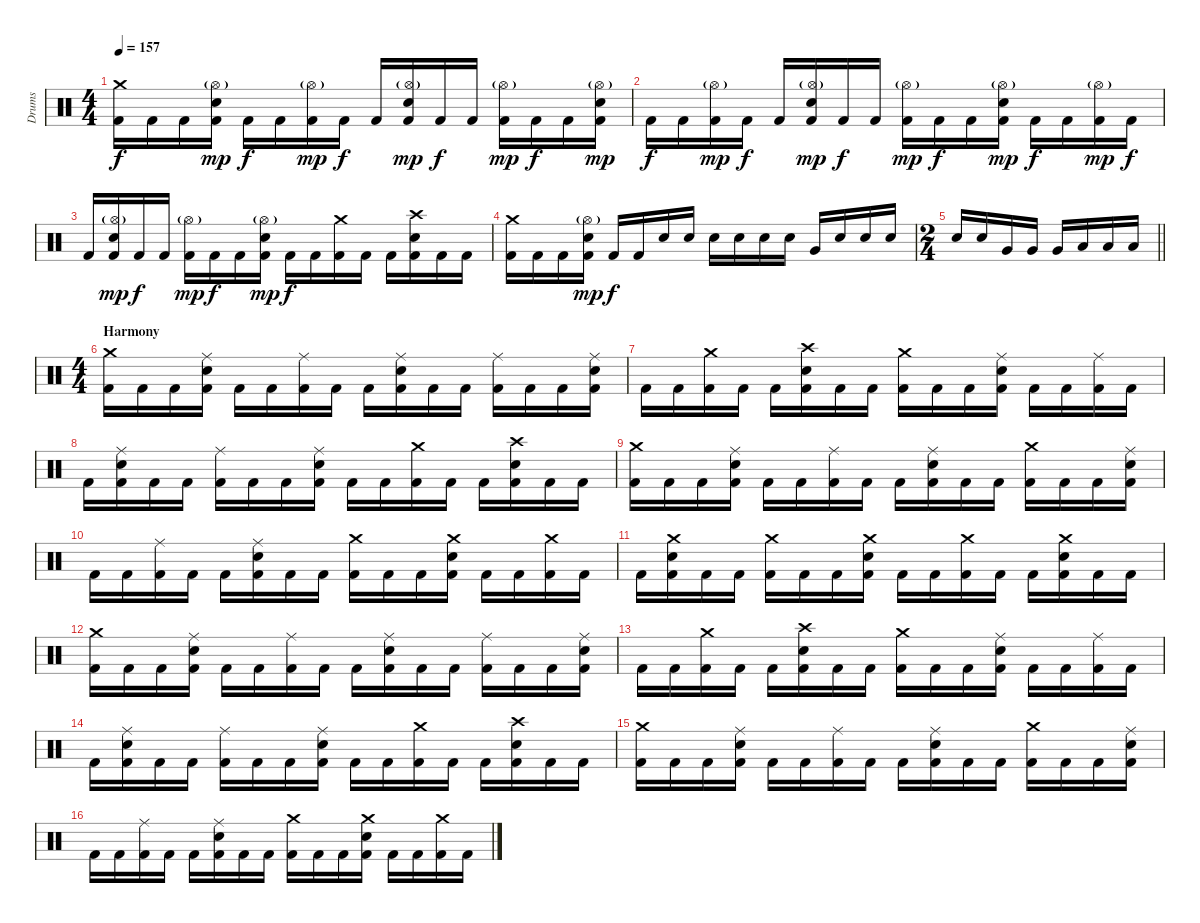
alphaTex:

\track ("Drums" "Drums") {instrument percussion}
\staff {score}
\articulation defaults
\ts (4 4)
\tempo 157
\clef neutral
\ks c
("Crash medium (hit)" "Kick (hit) 2").16{dy f} "Kick (hit) 2".16 "Kick (hit) 2".16 ("Hi-Hat (open)"{g} "Snare (hit) 2" "Kick (hit) 2").16{dy mp} "Kick (hit) 2".16{dy f} "Kick (hit) 2".16 ("Hi-Hat (open)"{g} "Kick (hit) 2").16{dy mp} "Kick (hit) 2".16{dy f} "Kick (hit) 2".16 ("Hi-Hat (open)"{g} "Snare (hit) 2" "Kick (hit) 2").16{dy mp} "Kick (hit) 2".16{dy f} "Kick (hit) 2".16 ("Hi-Hat (open)"{g} "Kick (hit) 2").16{dy mp} "Kick (hit) 2".16{dy f} "Kick (hit) 2".16 ("Hi-Hat (open)"{g} "Snare (hit) 2" "Kick (hit) 2").16{dy mp} |
"Kick (hit) 2".16{dy f} "Kick (hit) 2".16 ("Hi-Hat (open)"{g} "Kick (hit) 2").16{dy mp} "Kick (hit) 2".16{dy f} "Kick (hit) 2".16 ("Hi-Hat (open)"{g} "Snare (hit) 2" "Kick (hit) 2").16{dy mp} "Kick (hit) 2".16{dy f} "Kick (hit) 2".16 ("Hi-Hat (open)"{g} "Kick (hit) 2").16{dy mp} "Kick (hit) 2".16{dy f} "Kick (hit) 2".16 ("Hi-Hat (open)"{g} "Snare (hit) 2" "Kick (hit) 2").16{dy mp} "Kick (hit) 2".16{dy f} "Kick (hit) 2".16 ("Hi-Hat (open)"{g} "Kick (hit) 2").16{dy mp} "Kick (hit) 2".16{dy f} |
"Kick (hit) 2".16 ("Hi-Hat (open)"{g} "Snare (hit) 2" "Kick (hit) 2").16{dy mp} "Kick (hit) 2".16{dy f} "Kick (hit) 2".16 ("Hi-Hat (open)"{g} "Kick (hit) 2").16{dy mp} "Kick (hit) 2".16{dy f} "Kick (hit) 2".16 ("Hi-Hat (open)"{g} "Snare (hit) 2" "Kick (hit) 2").16{dy mp} "Kick (hit) 2".16{dy f} "Kick (hit) 2".16 ("Crash medium (hit)" "Kick (hit) 2").16 "Kick (hit) 2".16 "Kick (hit) 2".16 ("Crash high (hit)" "Snare (hit) 2" "Kick (hit) 2").16 "Kick (hit) 2".16 "Kick (hit) 2".16 |
("Crash medium (hit)" "Kick (hit) 2").16 "Kick (hit) 2".16 "Kick (hit) 2".16 ("Hi-Hat (open)"{g} "Snare (hit) 2" "Kick (hit) 2").16{dy mp} "Kick (hit) 2".16{dy f} "Kick (hit) 2".16 "Snare (hit) 2".16 "Snare (hit) 2".16 "Snare (hit) 2".16 "Snare (hit) 2".16 "Snare (hit) 2".16 "Snare (hit) 2".16 "Very Low Tom (hit)".16 "Snare (hit) 2".16 "Snare (hit) 2".16 "Snare (hit) 2".16 |
\ts (2 4)
\barLineRight lightlight "Snare (hit) 2".16 "Snare (hit) 2".16 "Very Low Tom (hit)".16 "Very Low Tom (hit)".16 "Very Low Tom (hit)".16 "Low Floor Tom (hit)".16 "Low Floor Tom (hit)".16 "Low Floor Tom (hit)".16
|
\ts (4 4)
\section ("" "Harmony")
("Crash medium (hit)" "Kick (hit) 2").16 "Kick (hit) 2".16 "Kick (hit) 2".16 ("Ride (middle)" "Snare (hit) 2" "Kick (hit) 2").16 "Kick (hit) 2".16 "Kick (hit) 2".16 ("Ride (middle)" "Kick (hit) 2").16 "Kick (hit) 2".16 "Kick (hit) 2".16 ("Ride (middle)" "Snare (hit) 2" "Kick (hit) 2").16 "Kick (hit) 2".16 "Kick (hit) 2".16 ("Ride (middle)" "Kick (hit) 2").16 "Kick (hit) 2".16 "Kick (hit) 2".16 ("Ride (middle)" "Snare (hit) 2" "Kick (hit) 2").16 |
"Kick (hit) 2".16 "Kick (hit) 2".16 ("Crash medium (hit)" "Kick (hit) 2").16 "Kick (hit) 2".16 "Kick (hit) 2".16 ("Crash high (hit)" "Snare (hit) 2" "Kick (hit) 2").16 "Kick (hit) 2".16 "Kick (hit) 2".16 ("Crash medium (hit)" "Kick (hit) 2").16 "Kick (hit) 2".16 "Kick (hit) 2".16 ("Ride (middle)" "Snare (hit) 2" "Kick (hit) 2").16 "Kick (hit) 2".16 "Kick (hit) 2".16 ("Ride (middle)" "Kick (hit) 2").16 "Kick (hit) 2".16 |
"Kick (hit) 2".16 ("Ride (middle)" "Snare (hit) 2" "Kick (hit) 2").16 "Kick (hit) 2".16 "Kick (hit) 2".16 ("Ride (middle)" "Kick (hit) 2").16 "Kick (hit) 2".16 "Kick (hit) 2".16 ("Ride (middle)" "Snare (hit) 2" "Kick (hit) 2").16 "Kick (hit) 2".16 "Kick (hit) 2".16 ("Crash medium (hit)" "Kick (hit) 2").16 "Kick (hit) 2".16 "Kick (hit) 2".16 ("Crash high (hit)" "Snare (hit) 2" "Kick (hit) 2").16 "Kick (hit) 2".16 "Kick (hit) 2".16 |
("Crash medium (hit)" "Kick (hit) 2").16 "Kick (hit) 2".16 "Kick (hit) 2".16 ("Ride (middle)" "Snare (hit) 2" "Kick (hit) 2").16 "Kick (hit) 2".16 "Kick (hit) 2".16 ("Ride (middle)" "Kick (hit) 2").16 "Kick (hit) 2".16 "Kick (hit) 2".16 ("Ride (middle)" "Snare (hit) 2" "Kick (hit) 2").16 "Kick (hit) 2".16 "Kick (hit) 2".16 ("Crash medium (hit)" "Kick (hit) 2").16 "Kick (hit) 2".16 "Kick (hit) 2".16 ("Ride (middle)" "Snare (hit) 2" "Kick (hit) 2").16 |
"Kick (hit) 2".16 "Kick (hit) 2".16 ("Ride (middle)" "Kick (hit) 2").16 "Kick (hit) 2".16 "Kick (hit) 2".16 ("Ride (middle)" "Snare (hit) 2" "Kick (hit) 2").16 "Kick (hit) 2".16 "Kick (hit) 2".16 ("Crash medium (hit)" "Kick (hit) 2").16 "Kick (hit) 2".16 "Kick (hit) 2".16 ("Crash medium (hit)" "Snare (hit) 2" "Kick (hit) 2").16 "Kick (hit) 2".16 "Kick (hit) 2".16 ("Crash medium (hit)" "Kick (hit) 2").16 "Kick (hit) 2".16 |
"Kick (hit) 2".16 ("Crash medium (hit)" "Snare (hit) 2" "Kick (hit) 2").16 "Kick (hit) 2".16 "Kick (hit) 2".16 ("Crash medium (hit)" "Kick (hit) 2").16 "Kick (hit) 2".16 "Kick (hit) 2".16 ("Crash medium (hit)" "Snare (hit) 2" "Kick (hit) 2").16 "Kick (hit) 2".16 "Kick (hit) 2".16 ("Crash medium (hit)" "Kick (hit) 2").16 "Kick (hit) 2".16 "Kick (hit) 2".16 ("Crash medium (hit)" "Snare (hit) 2" "Kick (hit) 2").16 "Kick (hit) 2".16 "Kick (hit) 2".16 |
("Crash medium (hit)" "Kick (hit) 2").16 "Kick (hit) 2".16 "Kick (hit) 2".16 ("Ride (middle)" "Snare (hit) 2" "Kick (hit) 2").16 "Kick (hit) 2".16 "Kick (hit) 2".16 ("Ride (middle)" "Kick (hit) 2").16 "Kick (hit) 2".16 "Kick (hit) 2".16 ("Ride (middle)" "Snare (hit) 2" "Kick (hit) 2").16 "Kick (hit) 2".16 "Kick (hit) 2".16 ("Ride (middle)" "Kick (hit) 2").16 "Kick (hit) 2".16 "Kick (hit) 2".16 ("Ride (middle)" "Snare (hit) 2" "Kick (hit) 2").16 |
"Kick (hit) 2".16 "Kick (hit) 2".16 ("Crash medium (hit)" "Kick (hit) 2").16 "Kick (hit) 2".16 "Kick (hit) 2".16 ("Crash high (hit)" "Snare (hit) 2" "Kick (hit) 2").16 "Kick (hit) 2".16 "Kick (hit) 2".16 ("Crash medium (hit)" "Kick (hit) 2").16 "Kick (hit) 2".16 "Kick (hit) 2".16 ("Ride (middle)" "Snare (hit) 2" "Kick (hit) 2").16 "Kick (hit) 2".16 "Kick (hit) 2".16 ("Ride (middle)" "Kick (hit) 2").16 "Kick (hit) 2".16 |
"Kick (hit) 2".16 ("Ride (middle)" "Snare (hit) 2" "Kick (hit) 2").16 "Kick (hit) 2".16 "Kick (hit) 2".16 ("Ride (middle)" "Kick (hit) 2").16 "Kick (hit) 2".16 "Kick (hit) 2".16 ("Ride (middle)" "Snare (hit) 2" "Kick (hit) 2").16 "Kick (hit) 2".16 "Kick (hit) 2".16 ("Crash medium (hit)" "Kick (hit) 2").16 "Kick (hit) 2".16 "Kick (hit) 2".16 ("Crash high (hit)" "Snare (hit) 2" "Kick (hit) 2").16 "Kick (hit) 2".16 "Kick (hit) 2".16 |
("Crash medium (hit)" "Kick (hit) 2").16 "Kick (hit) 2".16 "Kick (hit) 2".16 ("Ride (middle)" "Snare (hit) 2" "Kick (hit) 2").16 "Kick (hit) 2".16 "Kick (hit) 2".16 ("Ride (middle)" "Kick (hit) 2").16 "Kick (hit) 2".16 "Kick (hit) 2".16 ("Ride (middle)" "Snare (hit) 2" "Kick (hit) 2").16 "Kick (hit) 2".16 "Kick (hit) 2".16 ("Crash medium (hit)" "Kick (hit) 2").16 "Kick (hit) 2".16 "Kick (hit) 2".16 ("Ride (middle)" "Snare (hit) 2" "Kick (hit) 2").16 |
"Kick (hit) 2".16 "Kick (hit) 2".16 ("Ride (middle)" "Kick (hit) 2").16 "Kick (hit) 2".16 "Kick (hit) 2".16 ("Ride (middle)" "Snare (hit) 2" "Kick (hit) 2").16 "Kick (hit) 2".16 "Kick (hit) 2".16 ("Crash medium (hit)" "Kick (hit) 2").16 "Kick (hit) 2".16 "Kick (hit) 2".16 ("Crash medium (hit)" "Snare (hit) 2" "Kick (hit) 2").16 "Kick (hit) 2".16 "Kick (hit) 2".16 ("Crash medium (hit)" "Kick (hit) 2").16 "Kick (hit) 2".16
